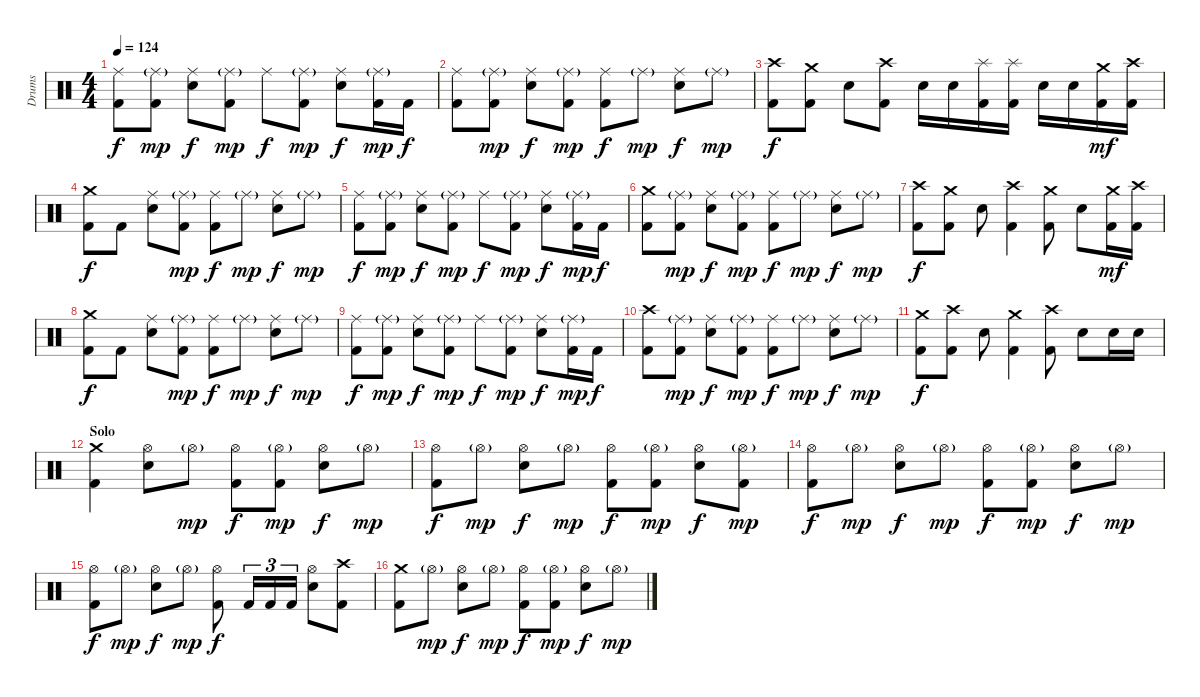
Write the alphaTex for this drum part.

\track ("Drums" "Drums") {instrument percussion}
\staff {score}
\articulation defaults
\ts (4 4)
\tempo 124
\clef neutral
\ks c
("Ride (middle)" "Kick (hit) 2").8{dy f} ("Ride (middle)"{g} "Kick (hit) 2").8{dy mp} ("Ride (middle)" "Snare (hit) 2").8{dy f} ("Ride (middle)"{g} "Kick (hit) 2").8{dy mp} "Ride (middle)".8{dy f} ("Ride (middle)"{g} "Kick (hit) 2").8{dy mp} ("Ride (middle)" "Snare (hit) 2").8{dy f} ("Ride (middle)"{g} "Kick (hit) 2").16{dy mp} "Kick (hit) 2".16{dy f} |
("Ride (middle)" "Kick (hit) 2").8 ("Ride (middle)"{g} "Kick (hit) 2").8{dy mp} ("Ride (middle)" "Snare (hit) 2").8{dy f} ("Ride (middle)"{g} "Kick (hit) 2").8{dy mp} ("Ride (middle)" "Kick (hit) 2").8{dy f} "Ride (middle)"{g}.8{dy mp} ("Ride (middle)" "Snare (hit) 2").8{dy f} "Ride (middle)"{g}.8{dy mp} |
("Crash high (hit)" "Kick (hit) 2").8{dy f} ("Crash medium (hit)" "Kick (hit) 2").8 "Snare (hit) 2".8 ("Crash high (hit)" "Kick (hit) 2").8 "Snare (hit) 2".16 "Snare (hit) 2".16 ("Splash (hit)" "Kick (hit) 2").16 ("Splash (hit)" "Kick (hit) 2").16 "Snare (hit) 2".16 "Snare (hit) 2".16 ("Crash medium (hit)" "Kick (hit) 2").16{dy mf} ("Crash high (hit)" "Kick (hit) 2").16 |
("Crash medium (hit)" "Kick (hit) 2").8{dy f} "Kick (hit) 2".8 ("Ride (middle)" "Snare (hit) 2").8 ("Ride (middle)"{g} "Kick (hit) 2").8{dy mp} ("Ride (middle)" "Kick (hit) 2").8{dy f} "Ride (middle)"{g}.8{dy mp} ("Ride (middle)" "Snare (hit) 2").8{dy f} "Ride (middle)"{g}.8{dy mp} |
("Ride (middle)" "Kick (hit) 2").8{dy f} ("Ride (middle)"{g} "Kick (hit) 2").8{dy mp} ("Ride (middle)" "Snare (hit) 2").8{dy f} ("Ride (middle)"{g} "Kick (hit) 2").8{dy mp} "Ride (middle)".8{dy f} ("Ride (middle)"{g} "Kick (hit) 2").8{dy mp} ("Ride (middle)" "Snare (hit) 2").8{dy f} ("Ride (middle)"{g} "Kick (hit) 2").16{dy mp} "Kick (hit) 2".16{dy f} |
("Crash medium (hit)" "Kick (hit) 2").8 ("Ride (middle)"{g} "Kick (hit) 2").8{dy mp} ("Ride (middle)" "Snare (hit) 2").8{dy f} ("Ride (middle)"{g} "Kick (hit) 2").8{dy mp} ("Ride (middle)" "Kick (hit) 2").8{dy f} "Ride (middle)"{g}.8{dy mp} ("Ride (middle)" "Snare (hit) 2").8{dy f} "Ride (middle)"{g}.8{dy mp} |
("Crash high (hit)" "Kick (hit) 2").8{dy f} ("Crash medium (hit)" "Kick (hit) 2").8 "Snare (hit) 2".8 ("Crash high (hit)" "Kick (hit) 2").4 ("Crash medium (hit)" "Kick (hit) 2").8 "Snare (hit) 2".8 ("Crash medium (hit)" "Kick (hit) 2").16{dy mf} ("Crash high (hit)" "Kick (hit) 2").16 |
("Crash medium (hit)" "Kick (hit) 2").8{dy f} "Kick (hit) 2".8 ("Ride (middle)" "Snare (hit) 2").8 ("Ride (middle)"{g} "Kick (hit) 2").8{dy mp} ("Ride (middle)" "Kick (hit) 2").8{dy f} "Ride (middle)"{g}.8{dy mp} ("Ride (middle)" "Snare (hit) 2").8{dy f} "Ride (middle)"{g}.8{dy mp} |
("Ride (middle)" "Kick (hit) 2").8{dy f} ("Ride (middle)"{g} "Kick (hit) 2").8{dy mp} ("Ride (middle)" "Snare (hit) 2").8{dy f} ("Ride (middle)"{g} "Kick (hit) 2").8{dy mp} "Ride (middle)".8{dy f} ("Ride (middle)"{g} "Kick (hit) 2").8{dy mp} ("Ride (middle)" "Snare (hit) 2").8{dy f} ("Ride (middle)"{g} "Kick (hit) 2").16{dy mp} "Kick (hit) 2".16{dy f} |
("Crash high (hit)" "Kick (hit) 2").8 ("Ride (middle)"{g} "Kick (hit) 2").8{dy mp} ("Ride (middle)" "Snare (hit) 2").8{dy f} ("Ride (middle)"{g} "Kick (hit) 2").8{dy mp} ("Ride (middle)" "Kick (hit) 2").8{dy f} "Ride (middle)"{g}.8{dy mp} ("Ride (middle)" "Snare (hit) 2").8{dy f} "Ride (middle)"{g}.8{dy mp} |
("Crash medium (hit)" "Kick (hit) 2").8{dy f} ("Crash high (hit)" "Kick (hit) 2").8 "Snare (hit) 2".8 ("Crash medium (hit)" "Kick (hit) 2").4 ("Crash high (hit)" "Kick (hit) 2").8 "Snare (hit) 2".8 "Snare (hit) 2".16 "Snare (hit) 2".16 |
\section ("" "Solo")
("Crash medium (hit)" "Kick (hit) 2").4 ("Hi-Hat (open)" "Snare (hit) 2").8 "Hi-Hat (open)"{g}.8{dy mp} ("Hi-Hat (open)" "Kick (hit) 2").8{dy f} ("Hi-Hat (open)"{g} "Kick (hit) 2").8{dy mp} ("Hi-Hat (open)" "Snare (hit) 2").8{dy f} "Hi-Hat (open)"{g}.8{dy mp} |
("Hi-Hat (open)" "Kick (hit) 2").8{dy f} "Hi-Hat (open)"{g}.8{dy mp} ("Hi-Hat (open)" "Snare (hit) 2").8{dy f} "Hi-Hat (open)"{g}.8{dy mp} ("Hi-Hat (open)" "Kick (hit) 2").8{dy f} ("Hi-Hat (open)"{g} "Kick (hit) 2").8{dy mp} ("Hi-Hat (open)" "Snare (hit) 2").8{dy f} ("Hi-Hat (open)"{g} "Kick (hit) 2").8{dy mp} |
("Hi-Hat (open)" "Kick (hit) 2").8{dy f} "Hi-Hat (open)"{g}.8{dy mp} ("Hi-Hat (open)" "Snare (hit) 2").8{dy f} "Hi-Hat (open)"{g}.8{dy mp} ("Hi-Hat (open)" "Kick (hit) 2").8{dy f} ("Hi-Hat (open)"{g} "Kick (hit) 2").8{dy mp} ("Hi-Hat (open)" "Snare (hit) 2").8{dy f} "Hi-Hat (open)"{g}.8{dy mp} |
("Hi-Hat (open)" "Kick (hit) 2").8{dy f} "Hi-Hat (open)"{g}.8{dy mp} ("Hi-Hat (open)" "Snare (hit) 2").8{dy f} "Hi-Hat (open)"{g}.8{dy mp} ("Hi-Hat (open)" "Kick (hit) 2").8{dy f} "Kick (hit) 2".16{tu (3 2)} "Kick (hit) 2".16{tu (3 2)} "Kick (hit) 2".16{tu (3 2)} ("Hi-Hat (open)" "Snare (hit) 2").8 ("Crash high (hit)" "Kick (hit) 2").8 |
("Crash medium (hit)" "Kick (hit) 2").8 "Hi-Hat (open)"{g}.8{dy mp} ("Hi-Hat (open)" "Snare (hit) 2").8{dy f} "Hi-Hat (open)"{g}.8{dy mp} ("Hi-Hat (open)" "Kick (hit) 2").8{dy f} ("Hi-Hat (open)"{g} "Kick (hit) 2").8{dy mp} ("Hi-Hat (open)" "Snare (hit) 2").8{dy f} "Hi-Hat (open)"{g}.8{dy mp}
